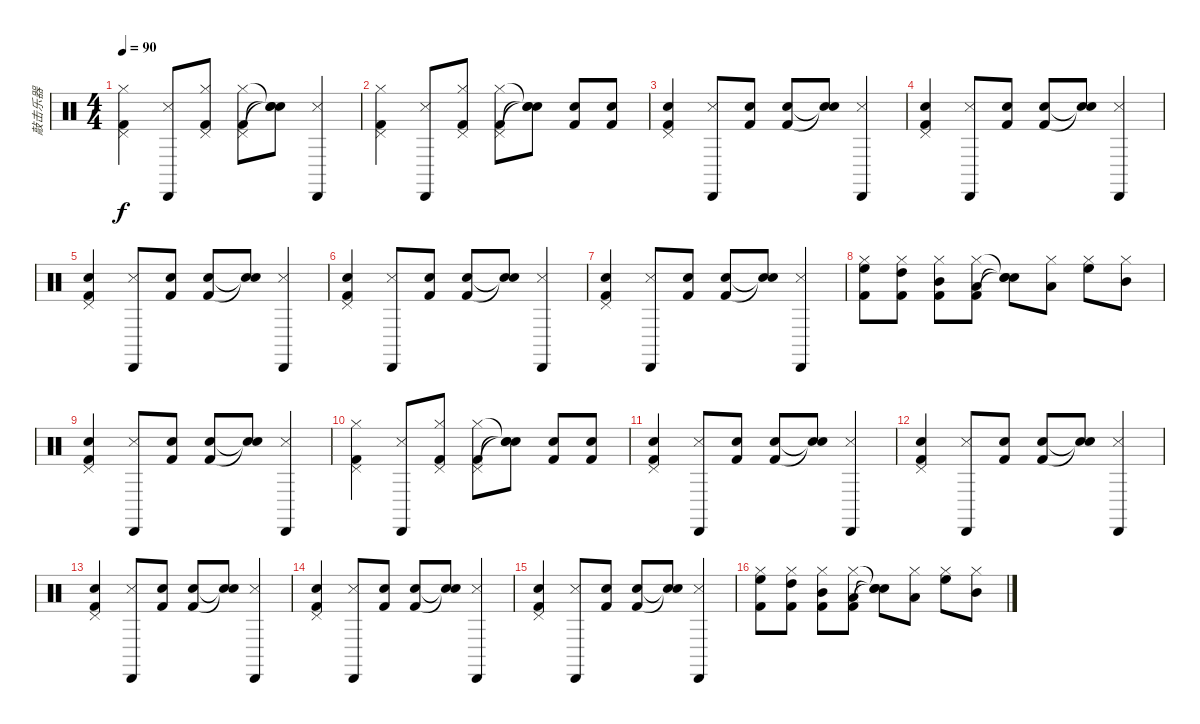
\track ("敲击乐器" "敲击乐器") {instrument percussion}
\staff {score}
\articulation defaults
\ts (4 4)
\tempo 90
\clef neutral
\ks c
("Hi-Hat (closed)" "Pedal Hi-Hat (hit)" "Kick (hit) 2").4{dy f} ("Snare (side stick) 3" "Cabasa (hit)").8 ("Hi-Hat (closed)" "Pedal Hi-Hat (hit)" "Kick (hit) 2").8 ("Hi-Hat (closed)" "Pedal Hi-Hat (hit)" "Kick (hit) 2").8 ("Snare (hit)"{t} "Snare (hit)"{t} "Snare (hit)"{t}).8 ("Snare (side stick) 3" "Cabasa (hit)").4 |
("Hi-Hat (closed)" "Pedal Hi-Hat (hit)" "Kick (hit) 2").4 ("Snare (side stick) 3" "Cabasa (hit)").8 ("Hi-Hat (closed)" "Pedal Hi-Hat (hit)" "Kick (hit) 2").8 ("Hi-Hat (closed)" "Pedal Hi-Hat (hit)" "Kick (hit) 2").8 ("Snare (hit)"{t} "Snare (hit)"{t} "Snare (hit)"{t}).8 ("Snare (hit) 2" "Kick (hit) 2").8 ("Snare (hit) 2" "Kick (hit) 2").8 |
("Snare (hit) 2" "Pedal Hi-Hat (hit)" "Kick (hit) 2").4 ("Snare (side stick) 3" "Cabasa (hit)").8 ("Snare (hit) 2" "Kick (hit) 2").8 ("Snare (hit) 2" "Kick (hit) 2").8 ("Snare (hit)"{t} "Snare (hit)"{t}).8 ("Snare (side stick) 3" "Cabasa (hit)").4 |
("Snare (hit) 2" "Pedal Hi-Hat (hit)" "Kick (hit) 2").4 ("Snare (side stick) 3" "Cabasa (hit)").8 ("Snare (hit) 2" "Kick (hit) 2").8 ("Snare (hit) 2" "Kick (hit) 2").8 ("Snare (hit)"{t} "Snare (hit)"{t}).8 ("Snare (side stick) 3" "Cabasa (hit)").4 |
("Snare (hit) 2" "Pedal Hi-Hat (hit)" "Kick (hit) 2").4 ("Snare (side stick) 3" "Cabasa (hit)").8 ("Snare (hit) 2" "Kick (hit) 2").8 ("Snare (hit) 2" "Kick (hit) 2").8 ("Snare (hit)"{t} "Snare (hit)"{t}).8 ("Snare (side stick) 3" "Cabasa (hit)").4 |
("Snare (hit) 2" "Pedal Hi-Hat (hit)" "Kick (hit) 2").4 ("Snare (side stick) 3" "Cabasa (hit)").8 ("Snare (hit) 2" "Kick (hit) 2").8 ("Snare (hit) 2" "Kick (hit) 2").8 ("Snare (hit)"{t} "Snare (hit)"{t}).8 ("Snare (side stick) 3" "Cabasa (hit)").4 |
("Snare (hit) 2" "Pedal Hi-Hat (hit)" "Kick (hit) 2").4 ("Snare (side stick) 3" "Cabasa (hit)").8 ("Snare (hit) 2" "Kick (hit) 2").8 ("Snare (hit) 2" "Kick (hit) 2").8 ("Snare (hit)"{t} "Snare (hit)"{t}).8 ("Snare (side stick) 3" "Cabasa (hit)").4 |
("High Floor Tom (hit)" "Hi-Hat (closed)" "Kick (hit) 2").8 ("High Tom (hit)" "Hi-Hat (closed)" "Kick (hit) 2").8 ("Mid Tom (hit)" "Hi-Hat (closed)" "Kick (hit) 2").8 ("Low Tom (hit)" "Hi-Hat (closed)" "Kick (hit) 2").8 ("Snare (hit)"{t} "Snare (hit)"{t} "Snare (hit)"{t}).8 ("Hi-Hat (closed)" "Low Tom (hit)").8 ("Hi-Hat (closed)" "High Floor Tom (hit)").8 ("Hi-Hat (closed)" "Mid Tom (hit)").8 |
("Snare (hit) 2" "Pedal Hi-Hat (hit)" "Kick (hit) 2").4 ("Snare (side stick) 3" "Cabasa (hit)").8 ("Snare (hit) 2" "Kick (hit) 2").8 ("Snare (hit) 2" "Kick (hit) 2").8 ("Snare (hit)"{t} "Snare (hit)"{t}).8 ("Snare (side stick) 3" "Cabasa (hit)").4 |
("Hi-Hat (closed)" "Pedal Hi-Hat (hit)" "Kick (hit) 2").4 ("Snare (side stick) 3" "Cabasa (hit)").8 ("Hi-Hat (closed)" "Pedal Hi-Hat (hit)" "Kick (hit) 2").8 ("Hi-Hat (closed)" "Pedal Hi-Hat (hit)" "Kick (hit) 2").8 ("Snare (hit)"{t} "Snare (hit)"{t} "Snare (hit)"{t}).8 ("Snare (hit) 2" "Kick (hit) 2").8 ("Snare (hit) 2" "Kick (hit) 2").8 |
("Snare (hit) 2" "Pedal Hi-Hat (hit)" "Kick (hit) 2").4 ("Snare (side stick) 3" "Cabasa (hit)").8 ("Snare (hit) 2" "Kick (hit) 2").8 ("Snare (hit) 2" "Kick (hit) 2").8 ("Snare (hit)"{t} "Snare (hit)"{t}).8 ("Snare (side stick) 3" "Cabasa (hit)").4 |
("Snare (hit) 2" "Pedal Hi-Hat (hit)" "Kick (hit) 2").4 ("Snare (side stick) 3" "Cabasa (hit)").8 ("Snare (hit) 2" "Kick (hit) 2").8 ("Snare (hit) 2" "Kick (hit) 2").8 ("Snare (hit)"{t} "Snare (hit)"{t}).8 ("Snare (side stick) 3" "Cabasa (hit)").4 |
("Snare (hit) 2" "Pedal Hi-Hat (hit)" "Kick (hit) 2").4 ("Snare (side stick) 3" "Cabasa (hit)").8 ("Snare (hit) 2" "Kick (hit) 2").8 ("Snare (hit) 2" "Kick (hit) 2").8 ("Snare (hit)"{t} "Snare (hit)"{t}).8 ("Snare (side stick) 3" "Cabasa (hit)").4 |
("Snare (hit) 2" "Pedal Hi-Hat (hit)" "Kick (hit) 2").4 ("Snare (side stick) 3" "Cabasa (hit)").8 ("Snare (hit) 2" "Kick (hit) 2").8 ("Snare (hit) 2" "Kick (hit) 2").8 ("Snare (hit)"{t} "Snare (hit)"{t}).8 ("Snare (side stick) 3" "Cabasa (hit)").4 |
("Snare (hit) 2" "Pedal Hi-Hat (hit)" "Kick (hit) 2").4 ("Snare (side stick) 3" "Cabasa (hit)").8 ("Snare (hit) 2" "Kick (hit) 2").8 ("Snare (hit) 2" "Kick (hit) 2").8 ("Snare (hit)"{t} "Snare (hit)"{t}).8 ("Snare (side stick) 3" "Cabasa (hit)").4 |
("High Floor Tom (hit)" "Hi-Hat (closed)" "Kick (hit) 2").8 ("High Tom (hit)" "Hi-Hat (closed)" "Kick (hit) 2").8 ("Mid Tom (hit)" "Hi-Hat (closed)" "Kick (hit) 2").8 ("Low Tom (hit)" "Hi-Hat (closed)" "Kick (hit) 2").8 ("Snare (hit)"{t} "Snare (hit)"{t} "Snare (hit)"{t}).8 ("Hi-Hat (closed)" "Low Tom (hit)").8 ("Hi-Hat (closed)" "High Floor Tom (hit)").8 ("Hi-Hat (closed)" "Mid Tom (hit)").8
